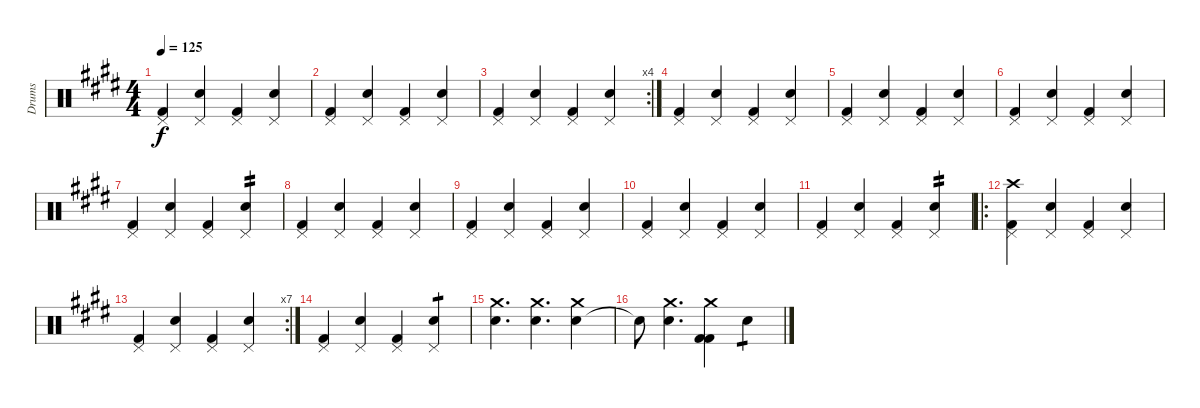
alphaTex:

\track ("Drums" "Drums") {instrument percussion}
\staff {score}
\articulation defaults
\ts (4 4)
\tempo 125
\clef neutral
\ks e
("Kick (hit) 2" "Pedal Hi-Hat (hit)").4{dy f} ("Snare (hit) 2" "Pedal Hi-Hat (hit)").4 ("Kick (hit) 2" "Pedal Hi-Hat (hit)").4 ("Snare (hit) 2" "Pedal Hi-Hat (hit)").4 |
("Kick (hit) 2" "Pedal Hi-Hat (hit)").4 ("Snare (hit) 2" "Pedal Hi-Hat (hit)").4 ("Kick (hit) 2" "Pedal Hi-Hat (hit)").4 ("Snare (hit) 2" "Pedal Hi-Hat (hit)").4 |
\rc 4
("Kick (hit) 2" "Pedal Hi-Hat (hit)").4 ("Snare (hit) 2" "Pedal Hi-Hat (hit)").4 ("Kick (hit) 2" "Pedal Hi-Hat (hit)").4 ("Snare (hit) 2" "Pedal Hi-Hat (hit)").4 |
("Kick (hit) 2" "Pedal Hi-Hat (hit)").4 ("Snare (hit) 2" "Pedal Hi-Hat (hit)").4 ("Kick (hit) 2" "Pedal Hi-Hat (hit)").4 ("Snare (hit) 2" "Pedal Hi-Hat (hit)").4 |
("Kick (hit) 2" "Pedal Hi-Hat (hit)").4 ("Snare (hit) 2" "Pedal Hi-Hat (hit)").4 ("Kick (hit) 2" "Pedal Hi-Hat (hit)").4 ("Snare (hit) 2" "Pedal Hi-Hat (hit)").4 |
("Kick (hit) 2" "Pedal Hi-Hat (hit)").4 ("Snare (hit) 2" "Pedal Hi-Hat (hit)").4 ("Kick (hit) 2" "Pedal Hi-Hat (hit)").4 ("Snare (hit) 2" "Pedal Hi-Hat (hit)").4 |
("Kick (hit) 2" "Pedal Hi-Hat (hit)").4 ("Snare (hit) 2" "Pedal Hi-Hat (hit)").4 ("Kick (hit) 2" "Pedal Hi-Hat (hit)").4 ("Snare (hit) 2" "Pedal Hi-Hat (hit)").4{tp 2} |
("Kick (hit) 2" "Pedal Hi-Hat (hit)").4 ("Snare (hit) 2" "Pedal Hi-Hat (hit)").4 ("Kick (hit) 2" "Pedal Hi-Hat (hit)").4 ("Snare (hit) 2" "Pedal Hi-Hat (hit)").4 |
("Kick (hit) 2" "Pedal Hi-Hat (hit)").4 ("Snare (hit) 2" "Pedal Hi-Hat (hit)").4 ("Kick (hit) 2" "Pedal Hi-Hat (hit)").4 ("Snare (hit) 2" "Pedal Hi-Hat (hit)").4 |
("Kick (hit) 2" "Pedal Hi-Hat (hit)").4 ("Snare (hit) 2" "Pedal Hi-Hat (hit)").4 ("Kick (hit) 2" "Pedal Hi-Hat (hit)").4 ("Snare (hit) 2" "Pedal Hi-Hat (hit)").4 |
("Kick (hit) 2" "Pedal Hi-Hat (hit)").4 ("Snare (hit) 2" "Pedal Hi-Hat (hit)").4 ("Kick (hit) 2" "Pedal Hi-Hat (hit)").4 ("Snare (hit) 2" "Pedal Hi-Hat (hit)").4{tp 2} |
\ro
("Kick (hit) 2" "Pedal Hi-Hat (hit)" "Crash high (hit)").4 ("Snare (hit) 2" "Pedal Hi-Hat (hit)").4 ("Kick (hit) 2" "Pedal Hi-Hat (hit)").4 ("Snare (hit) 2" "Pedal Hi-Hat (hit)").4 |
\rc 7
("Kick (hit) 2" "Pedal Hi-Hat (hit)").4 ("Snare (hit) 2" "Pedal Hi-Hat (hit)").4 ("Kick (hit) 2" "Pedal Hi-Hat (hit)").4 ("Snare (hit) 2" "Pedal Hi-Hat (hit)").4 |
("Kick (hit) 2" "Pedal Hi-Hat (hit)").4 ("Snare (hit) 2" "Pedal Hi-Hat (hit)").4 ("Kick (hit) 2" "Pedal Hi-Hat (hit)").4 ("Snare (hit) 2" "Pedal Hi-Hat (hit)").4{tp 1} |
("Snare (hit) 2" "Crash medium (hit)").4{d} ("Snare (hit) 2" "Crash medium (hit)").4{d} ("Snare (hit) 2" "Crash medium (hit)").4 |
"Snare (hit)"{t}.8 ("Snare (hit) 2" "Crash medium (hit)").4{d} ("Kick (hit) 2" "Kick (hit) 2" "Crash medium (hit)").4 "Snare (hit) 2".4{tp 1}
